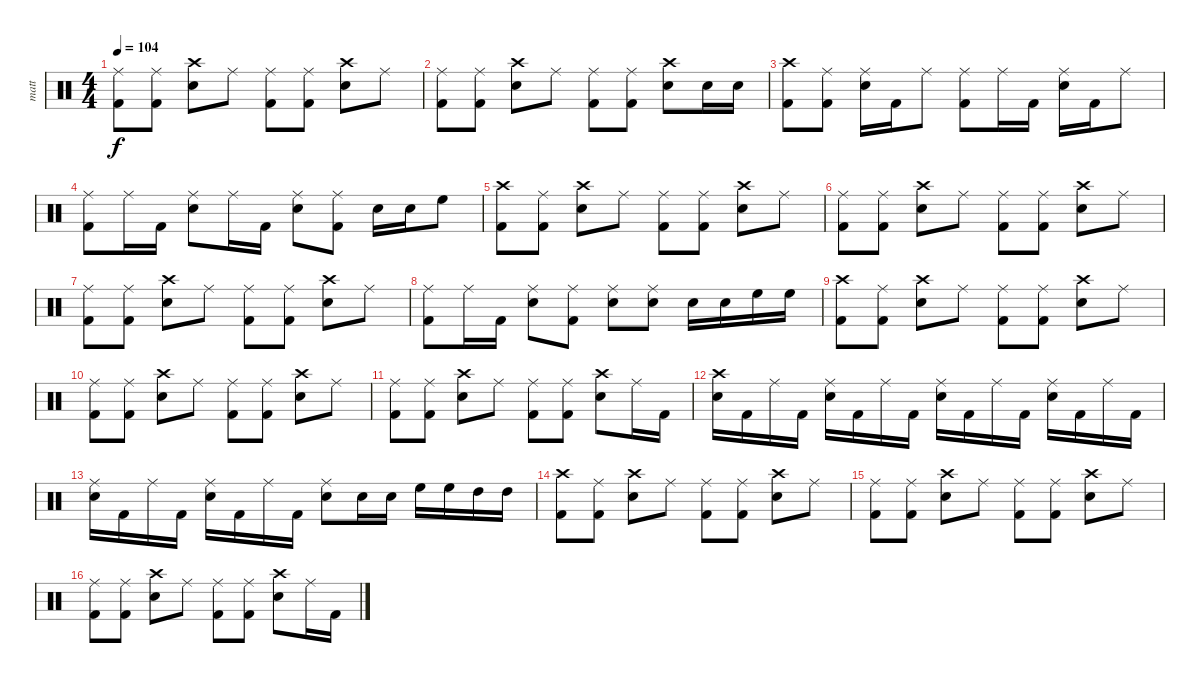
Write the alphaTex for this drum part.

\track ("matt" "matt") {instrument percussion}
\staff {score}
\articulation defaults
\ts (4 4)
\tempo 104
\clef neutral
\ks c
("Ride (middle)" "Kick (hit) 2").8{dy f} ("Ride (middle)" "Kick (hit) 2").8 ("Crash high (hit)" "Electric Snare (hit)").8 "Ride (middle)".8 ("Ride (middle)" "Kick (hit) 2").8 ("Ride (middle)" "Kick (hit) 2").8 ("Crash high (hit)" "Electric Snare (hit)").8 "Ride (middle)".8 |
("Ride (middle)" "Kick (hit) 2").8 ("Ride (middle)" "Kick (hit) 2").8 ("Crash high (hit)" "Electric Snare (hit)").8 "Ride (middle)".8 ("Ride (middle)" "Kick (hit) 2").8 ("Ride (middle)" "Kick (hit) 2").8 ("Crash high (hit)" "Electric Snare (hit)").8 "Electric Snare (hit)".16 "Electric Snare (hit)".16 |
("Crash high (hit)" "Kick (hit) 2").8 ("Ride (middle)" "Kick (hit) 2").8 ("Ride (middle)" "Electric Snare (hit)").16 "Kick (hit) 2".16 "Ride (middle)".8 ("Ride (middle)" "Kick (hit) 2").8 "Ride (middle)".16 "Kick (hit) 2".16 ("Ride (middle)" "Electric Snare (hit)").16 "Kick (hit) 2".16 "Ride (middle)".8 |
("Ride (middle)" "Kick (hit) 2").8 "Ride (middle)".16 "Kick (hit) 2".16 ("Ride (middle)" "Electric Snare (hit)").8 "Ride (middle)".16 "Kick (hit) 2".16 ("Ride (middle)" "Electric Snare (hit)").8 ("Ride (middle)" "Kick (hit) 2").8 "Electric Snare (hit)".16 "Electric Snare (hit)".16 "High Floor Tom (hit)".8 |
("Crash high (hit)" "Kick (hit) 2").8 ("Ride (middle)" "Kick (hit) 2").8 ("Crash high (hit)" "Electric Snare (hit)").8 "Ride (middle)".8 ("Ride (middle)" "Kick (hit) 2").8 ("Ride (middle)" "Kick (hit) 2").8 ("Crash high (hit)" "Electric Snare (hit)").8 "Ride (middle)".8 |
("Ride (middle)" "Kick (hit) 2").8 ("Ride (middle)" "Kick (hit) 2").8 ("Crash high (hit)" "Electric Snare (hit)").8 "Ride (middle)".8 ("Ride (middle)" "Kick (hit) 2").8 ("Ride (middle)" "Kick (hit) 2").8 ("Crash high (hit)" "Electric Snare (hit)").8 "Ride (middle)".8 |
("Ride (middle)" "Kick (hit) 2").8 ("Ride (middle)" "Kick (hit) 2").8 ("Crash high (hit)" "Electric Snare (hit)").8 "Ride (middle)".8 ("Ride (middle)" "Kick (hit) 2").8 ("Ride (middle)" "Kick (hit) 2").8 ("Crash high (hit)" "Electric Snare (hit)").8 "Ride (middle)".8 |
("Ride (middle)" "Kick (hit) 2").8 "Ride (middle)".16 "Kick (hit) 2".16 ("Ride (middle)" "Electric Snare (hit)").8 ("Ride (middle)" "Kick (hit) 2").8 ("Ride (middle)" "Electric Snare (hit)").8 ("Ride (middle)" "Electric Snare (hit)").8 "Electric Snare (hit)".16 "Electric Snare (hit)".16 "High Floor Tom (hit)".16 "High Floor Tom (hit)".16 |
("Crash high (hit)" "Kick (hit) 2").8 ("Ride (middle)" "Kick (hit) 2").8 ("Crash high (hit)" "Electric Snare (hit)").8 "Ride (middle)".8 ("Ride (middle)" "Kick (hit) 2").8 ("Ride (middle)" "Kick (hit) 2").8 ("Crash high (hit)" "Electric Snare (hit)").8 "Ride (middle)".8 |
("Ride (middle)" "Kick (hit) 2").8 ("Ride (middle)" "Kick (hit) 2").8 ("Crash high (hit)" "Electric Snare (hit)").8 "Ride (middle)".8 ("Ride (middle)" "Kick (hit) 2").8 ("Ride (middle)" "Kick (hit) 2").8 ("Crash high (hit)" "Electric Snare (hit)").8 "Ride (middle)".8 |
("Ride (middle)" "Kick (hit) 2").8 ("Ride (middle)" "Kick (hit) 2").8 ("Crash high (hit)" "Electric Snare (hit)").8 "Ride (middle)".8 ("Ride (middle)" "Kick (hit) 2").8 ("Ride (middle)" "Kick (hit) 2").8 ("Crash high (hit)" "Electric Snare (hit)").8 "Ride (middle)".16 "Kick (hit) 2".16 |
("Crash high (hit)" "Electric Snare (hit)").16 "Kick (hit) 2".16 "Ride (middle)".16 "Kick (hit) 2".16 ("Ride (middle)" "Electric Snare (hit)").16 "Kick (hit) 2".16 "Ride (middle)".16 "Kick (hit) 2".16 ("Ride (middle)" "Electric Snare (hit)").16 "Kick (hit) 2".16 "Ride (middle)".16 "Kick (hit) 2".16 ("Ride (middle)" "Electric Snare (hit)").16 "Kick (hit) 2".16 "Ride (middle)".16 "Kick (hit) 2".16 |
("Ride (middle)" "Electric Snare (hit)").16 "Kick (hit) 2".16 "Ride (middle)".16 "Kick (hit) 2".16 ("Ride (middle)" "Electric Snare (hit)").16 "Kick (hit) 2".16 "Ride (middle)".16 "Kick (hit) 2".16 ("Ride (middle)" "Electric Snare (hit)").8 "Electric Snare (hit)".16 "Electric Snare (hit)".16 "High Floor Tom (hit)".16 "High Floor Tom (hit)".16 "High Tom (hit)".16 "High Tom (hit)".16 |
("Crash high (hit)" "Kick (hit) 2").8 ("Ride (middle)" "Kick (hit) 2").8 ("Crash high (hit)" "Electric Snare (hit)").8 "Ride (middle)".8 ("Ride (middle)" "Kick (hit) 2").8 ("Ride (middle)" "Kick (hit) 2").8 ("Crash high (hit)" "Electric Snare (hit)").8 "Ride (middle)".8 |
("Ride (middle)" "Kick (hit) 2").8 ("Ride (middle)" "Kick (hit) 2").8 ("Crash high (hit)" "Electric Snare (hit)").8 "Ride (middle)".8 ("Ride (middle)" "Kick (hit) 2").8 ("Ride (middle)" "Kick (hit) 2").8 ("Crash high (hit)" "Electric Snare (hit)").8 "Ride (middle)".8 |
("Ride (middle)" "Kick (hit) 2").8 ("Ride (middle)" "Kick (hit) 2").8 ("Crash high (hit)" "Electric Snare (hit)").8 "Ride (middle)".8 ("Ride (middle)" "Kick (hit) 2").8 ("Ride (middle)" "Kick (hit) 2").8 ("Crash high (hit)" "Electric Snare (hit)").8 "Ride (middle)".16 "Kick (hit) 2".16
